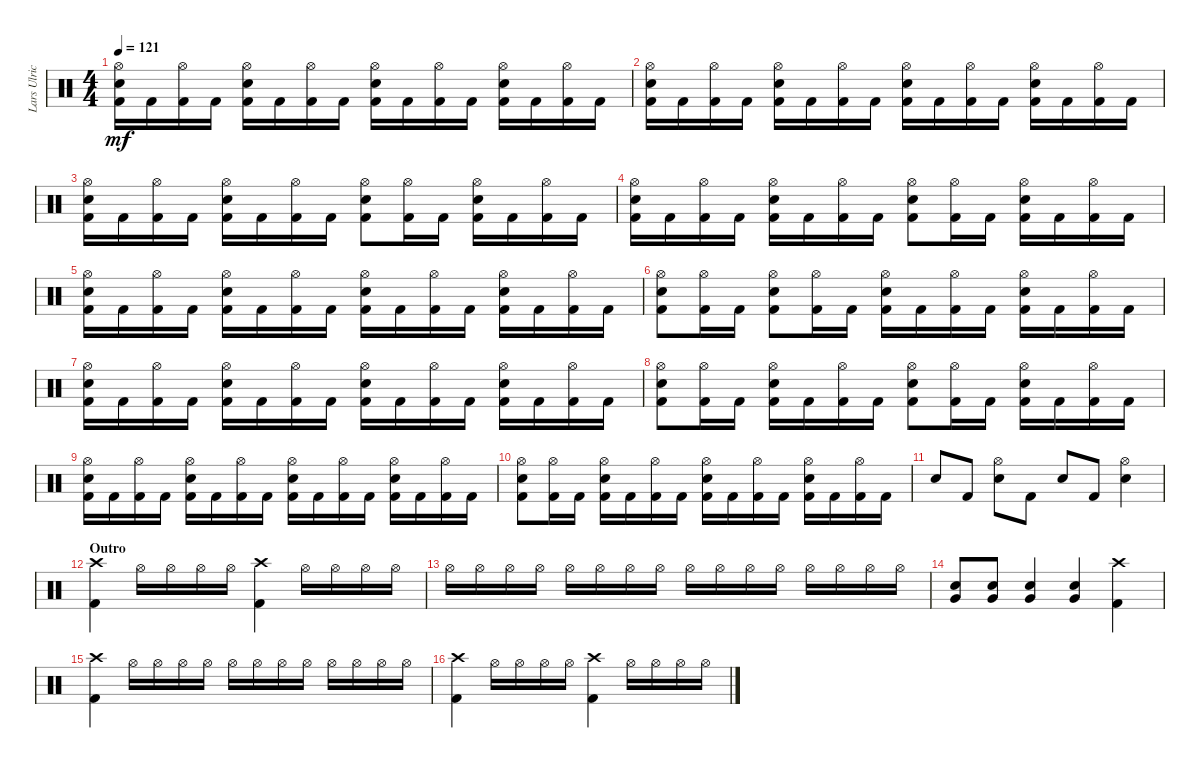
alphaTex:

\track ("Lars Ulrich" "Lars Ulric") {instrument percussion}
\staff {score}
\articulation defaults
\ts (4 4)
\tempo 121
\clef neutral
\ks c
("Kick (hit) 2" "Snare (hit) 2" "Hi-Hat (open)").16{dy mf} "Kick (hit) 2".16 ("Kick (hit) 2" "Hi-Hat (open)").16 "Kick (hit) 2".16 ("Kick (hit) 2" "Hi-Hat (open)" "Snare (hit) 2").16 "Kick (hit) 2".16 ("Kick (hit) 2" "Hi-Hat (open)").16 "Kick (hit) 2".16 ("Kick (hit) 2" "Hi-Hat (open)" "Snare (hit) 2").16 "Kick (hit) 2".16 ("Hi-Hat (open)" "Kick (hit) 2").16 "Kick (hit) 2".16 ("Kick (hit) 2" "Hi-Hat (open)" "Snare (hit) 2").16 "Kick (hit) 2".16 ("Hi-Hat (open)" "Kick (hit) 2").16 "Kick (hit) 2".16 |
("Kick (hit) 2" "Snare (hit) 2" "Hi-Hat (open)").16 "Kick (hit) 2".16 ("Kick (hit) 2" "Hi-Hat (open)").16 "Kick (hit) 2".16 ("Kick (hit) 2" "Hi-Hat (open)" "Snare (hit) 2").16 "Kick (hit) 2".16 ("Kick (hit) 2" "Hi-Hat (open)").16 "Kick (hit) 2".16 ("Kick (hit) 2" "Hi-Hat (open)" "Snare (hit) 2").16 "Kick (hit) 2".16 ("Hi-Hat (open)" "Kick (hit) 2").16 "Kick (hit) 2".16 ("Kick (hit) 2" "Hi-Hat (open)" "Snare (hit) 2").16 "Kick (hit) 2".16 ("Hi-Hat (open)" "Kick (hit) 2").16 "Kick (hit) 2".16 |
("Kick (hit) 2" "Snare (hit) 2" "Hi-Hat (open)").16 "Kick (hit) 2".16 ("Kick (hit) 2" "Hi-Hat (open)").16 "Kick (hit) 2".16 ("Kick (hit) 2" "Hi-Hat (open)" "Snare (hit) 2").16 "Kick (hit) 2".16 ("Kick (hit) 2" "Hi-Hat (open)").16 "Kick (hit) 2".16 ("Kick (hit) 2" "Hi-Hat (open)" "Snare (hit) 2").8 ("Hi-Hat (open)" "Kick (hit) 2").16 "Kick (hit) 2".16 ("Kick (hit) 2" "Hi-Hat (open)" "Snare (hit) 2").16 "Kick (hit) 2".16 ("Hi-Hat (open)" "Kick (hit) 2").16 "Kick (hit) 2".16 |
("Kick (hit) 2" "Snare (hit) 2" "Hi-Hat (open)").16 "Kick (hit) 2".16 ("Kick (hit) 2" "Hi-Hat (open)").16 "Kick (hit) 2".16 ("Kick (hit) 2" "Hi-Hat (open)" "Snare (hit) 2").16 "Kick (hit) 2".16 ("Kick (hit) 2" "Hi-Hat (open)").16 "Kick (hit) 2".16 ("Kick (hit) 2" "Hi-Hat (open)" "Snare (hit) 2").8 ("Hi-Hat (open)" "Kick (hit) 2").16 "Kick (hit) 2".16 ("Kick (hit) 2" "Hi-Hat (open)" "Snare (hit) 2").16 "Kick (hit) 2".16 ("Hi-Hat (open)" "Kick (hit) 2").16 "Kick (hit) 2".16 |
("Kick (hit) 2" "Snare (hit) 2" "Hi-Hat (open)").16 "Kick (hit) 2".16 ("Kick (hit) 2" "Hi-Hat (open)").16 "Kick (hit) 2".16 ("Kick (hit) 2" "Hi-Hat (open)" "Snare (hit) 2").16 "Kick (hit) 2".16 ("Kick (hit) 2" "Hi-Hat (open)").16 "Kick (hit) 2".16 ("Kick (hit) 2" "Hi-Hat (open)" "Snare (hit) 2").16 "Kick (hit) 2".16 ("Hi-Hat (open)" "Kick (hit) 2").16 "Kick (hit) 2".16 ("Kick (hit) 2" "Hi-Hat (open)" "Snare (hit) 2").16 "Kick (hit) 2".16 ("Hi-Hat (open)" "Kick (hit) 2").16 "Kick (hit) 2".16 |
("Kick (hit) 2" "Snare (hit) 2" "Hi-Hat (open)").8 ("Kick (hit) 2" "Hi-Hat (open)").16 "Kick (hit) 2".16 ("Kick (hit) 2" "Hi-Hat (open)" "Snare (hit) 2").8 ("Kick (hit) 2" "Hi-Hat (open)").16 "Kick (hit) 2".16 ("Kick (hit) 2" "Hi-Hat (open)" "Snare (hit) 2").16 "Kick (hit) 2".16 ("Hi-Hat (open)" "Kick (hit) 2").16 "Kick (hit) 2".16 ("Kick (hit) 2" "Hi-Hat (open)" "Snare (hit) 2").16 "Kick (hit) 2".16 ("Hi-Hat (open)" "Kick (hit) 2").16 "Kick (hit) 2".16 |
("Kick (hit) 2" "Snare (hit) 2" "Hi-Hat (open)").16 "Kick (hit) 2".16 ("Kick (hit) 2" "Hi-Hat (open)").16 "Kick (hit) 2".16 ("Kick (hit) 2" "Hi-Hat (open)" "Snare (hit) 2").16 "Kick (hit) 2".16 ("Kick (hit) 2" "Hi-Hat (open)").16 "Kick (hit) 2".16 ("Kick (hit) 2" "Hi-Hat (open)" "Snare (hit) 2").16 "Kick (hit) 2".16 ("Hi-Hat (open)" "Kick (hit) 2").16 "Kick (hit) 2".16 ("Kick (hit) 2" "Hi-Hat (open)" "Snare (hit) 2").16 "Kick (hit) 2".16 ("Hi-Hat (open)" "Kick (hit) 2").16 "Kick (hit) 2".16 |
("Kick (hit) 2" "Snare (hit) 2" "Hi-Hat (open)").8 ("Kick (hit) 2" "Hi-Hat (open)").16 "Kick (hit) 2".16 ("Kick (hit) 2" "Hi-Hat (open)" "Snare (hit) 2").16 "Kick (hit) 2".16 ("Kick (hit) 2" "Hi-Hat (open)").16 "Kick (hit) 2".16 ("Kick (hit) 2" "Hi-Hat (open)" "Snare (hit) 2").8 ("Hi-Hat (open)" "Kick (hit) 2").16 "Kick (hit) 2".16 ("Kick (hit) 2" "Hi-Hat (open)" "Snare (hit) 2").16 "Kick (hit) 2".16 ("Hi-Hat (open)" "Kick (hit) 2").16 "Kick (hit) 2".16 |
("Kick (hit) 2" "Snare (hit) 2" "Hi-Hat (open)").16 "Kick (hit) 2".16 ("Kick (hit) 2" "Hi-Hat (open)").16 "Kick (hit) 2".16 ("Kick (hit) 2" "Hi-Hat (open)" "Snare (hit) 2").16 "Kick (hit) 2".16 ("Kick (hit) 2" "Hi-Hat (open)").16 "Kick (hit) 2".16 ("Kick (hit) 2" "Hi-Hat (open)" "Snare (hit) 2").16 "Kick (hit) 2".16 ("Hi-Hat (open)" "Kick (hit) 2").16 "Kick (hit) 2".16 ("Kick (hit) 2" "Hi-Hat (open)" "Snare (hit) 2").16 "Kick (hit) 2".16 ("Hi-Hat (open)" "Kick (hit) 2").16 "Kick (hit) 2".16 |
("Kick (hit) 2" "Snare (hit) 2" "Hi-Hat (open)").8 ("Kick (hit) 2" "Hi-Hat (open)").16 "Kick (hit) 2".16 ("Kick (hit) 2" "Hi-Hat (open)" "Snare (hit) 2").16 "Kick (hit) 2".16 ("Kick (hit) 2" "Hi-Hat (open)").16 "Kick (hit) 2".16 ("Kick (hit) 2" "Hi-Hat (open)" "Snare (hit) 2").16 "Kick (hit) 2".16 ("Hi-Hat (open)" "Kick (hit) 2").16 "Kick (hit) 2".16 ("Kick (hit) 2" "Hi-Hat (open)" "Snare (hit) 2").16 "Kick (hit) 2".16 ("Hi-Hat (open)" "Kick (hit) 2").16 "Kick (hit) 2".16 |
"Snare (hit) 2".8 "Kick (hit) 2".8 ("Snare (hit) 2" "Hi-Hat (open)").8 "Kick (hit) 2".8 "Snare (hit) 2".8 "Kick (hit) 2".8 ("Hi-Hat (open)" "Snare (hit) 2").4 |
\section ("" "Outro")
("Kick (hit) 2" "Crash high (hit)").4 "Hi-Hat (open)".16 "Hi-Hat (open)".16 "Hi-Hat (open)".16 "Hi-Hat (open)".16 ("Kick (hit) 2" "Crash high (hit)").4 "Hi-Hat (open)".16 "Hi-Hat (open)".16 "Hi-Hat (open)".16 "Hi-Hat (open)".16 |
"Hi-Hat (open)".16 "Hi-Hat (open)".16 "Hi-Hat (open)".16 "Hi-Hat (open)".16 "Hi-Hat (open)".16 "Hi-Hat (open)".16 "Hi-Hat (open)".16 "Hi-Hat (open)".16 "Hi-Hat (open)".16 "Hi-Hat (open)".16 "Hi-Hat (open)".16 "Hi-Hat (open)".16 "Hi-Hat (open)".16 "Hi-Hat (open)".16 "Hi-Hat (open)".16 "Hi-Hat (open)".16 |
("Snare (hit) 2" "Very Low Tom (hit)").8 ("Snare (hit) 2" "Very Low Tom (hit)").8 ("Snare (hit) 2" "Very Low Tom (hit)").4 ("Snare (hit) 2" "Very Low Tom (hit)").4 ("Kick (hit) 2" "Crash high (hit)").4 |
("Kick (hit) 2" "Crash high (hit)").4 "Hi-Hat (open)".16 "Hi-Hat (open)".16 "Hi-Hat (open)".16 "Hi-Hat (open)".16 "Hi-Hat (open)".16 "Hi-Hat (open)".16 "Hi-Hat (open)".16 "Hi-Hat (open)".16 "Hi-Hat (open)".16 "Hi-Hat (open)".16 "Hi-Hat (open)".16 "Hi-Hat (open)".16 |
("Kick (hit) 2" "Crash high (hit)").4 "Hi-Hat (open)".16 "Hi-Hat (open)".16 "Hi-Hat (open)".16 "Hi-Hat (open)".16 ("Kick (hit) 2" "Crash high (hit)").4 "Hi-Hat (open)".16 "Hi-Hat (open)".16 "Hi-Hat (open)".16 "Hi-Hat (open)".16
